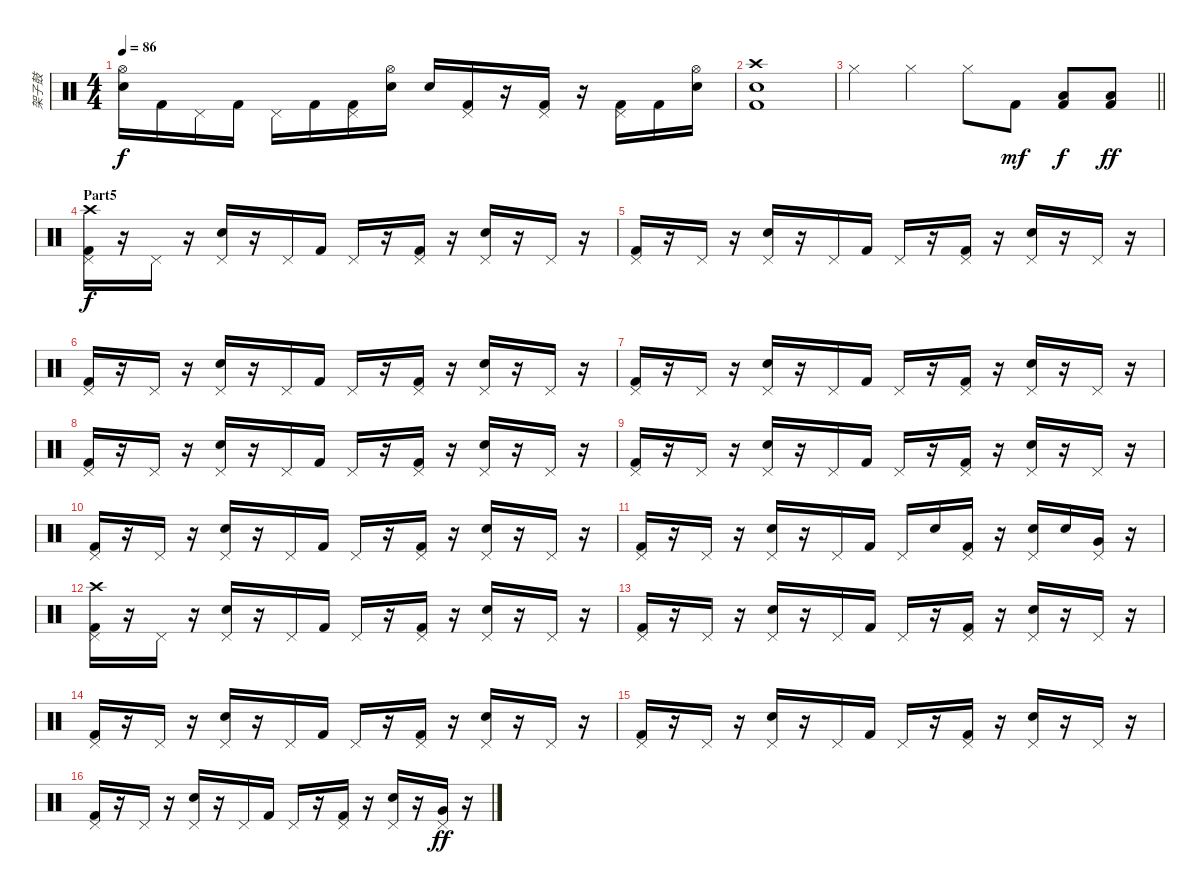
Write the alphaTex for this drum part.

\track ("架子鼓" "架子鼓") {instrument percussion}
\staff {score}
\articulation defaults
\ts (4 4)
\tempo 86
\clef neutral
\ks c
("Hi-Hat (open)" "Snare (hit) 2").16{dy f} "Kick (hit) 2".16 "Pedal Hi-Hat (hit)".16 "Kick (hit) 2".16 "Pedal Hi-Hat (hit)".16 "Kick (hit) 2".16 ("Pedal Hi-Hat (hit)" "Kick (hit) 2").16 ("Hi-Hat (open)" "Snare (hit) 2").16 "Snare (hit) 2".16 ("Pedal Hi-Hat (hit)" "Kick (hit) 2").16 r.16 ("Pedal Hi-Hat (hit)" "Kick (hit) 2").16 r.16 ("Pedal Hi-Hat (hit)" "Kick (hit) 2").16 "Kick (hit) 2".16 ("Hi-Hat (open)" "Snare (hit) 2").16 |
("Crash high (hit)" "Snare (hit) 2" "Kick (hit) 2").1 |
\barLineRight lightlight "Hi-Hat (closed)".4 "Hi-Hat (closed)".4 "Hi-Hat (closed)".8 "Kick (hit) 2".8{dy mf}
("Low Floor Tom (hit)" "Kick (hit) 2").8{dy f} ("Low Floor Tom (hit)" "Kick (hit) 2").8{dy ff} |
\section ("" "Part5")
("Crash high (hit)" "Pedal Hi-Hat (hit)" "Kick (hit) 2").16{dy f} r.16 "Pedal Hi-Hat (hit)".16 r.16 ("Pedal Hi-Hat (hit)" "Snare (hit) 2").16 r.16 "Pedal Hi-Hat (hit)".16 "Kick (hit) 2".16 "Pedal Hi-Hat (hit)".16 r.16 ("Pedal Hi-Hat (hit)" "Kick (hit) 2").16 r.16 ("Pedal Hi-Hat (hit)" "Snare (hit) 2").16 r.16 "Pedal Hi-Hat (hit)".16 r.16 |
("Pedal Hi-Hat (hit)" "Kick (hit) 2").16 r.16 "Pedal Hi-Hat (hit)".16 r.16 ("Pedal Hi-Hat (hit)" "Snare (hit) 2").16 r.16 "Pedal Hi-Hat (hit)".16 "Kick (hit) 2".16 "Pedal Hi-Hat (hit)".16 r.16 ("Pedal Hi-Hat (hit)" "Kick (hit) 2").16 r.16 ("Pedal Hi-Hat (hit)" "Snare (hit) 2").16 r.16 "Pedal Hi-Hat (hit)".16 r.16 |
("Pedal Hi-Hat (hit)" "Kick (hit) 2").16 r.16 "Pedal Hi-Hat (hit)".16 r.16 ("Pedal Hi-Hat (hit)" "Snare (hit) 2").16 r.16 "Pedal Hi-Hat (hit)".16 "Kick (hit) 2".16 "Pedal Hi-Hat (hit)".16 r.16 ("Pedal Hi-Hat (hit)" "Kick (hit) 2").16 r.16 ("Pedal Hi-Hat (hit)" "Snare (hit) 2").16 r.16 "Pedal Hi-Hat (hit)".16 r.16 |
("Pedal Hi-Hat (hit)" "Kick (hit) 2").16 r.16 "Pedal Hi-Hat (hit)".16 r.16 ("Pedal Hi-Hat (hit)" "Snare (hit) 2").16 r.16 "Pedal Hi-Hat (hit)".16 "Kick (hit) 2".16 "Pedal Hi-Hat (hit)".16 r.16 ("Pedal Hi-Hat (hit)" "Kick (hit) 2").16 r.16 ("Pedal Hi-Hat (hit)" "Snare (hit) 2").16 r.16 "Pedal Hi-Hat (hit)".16 r.16 |
("Pedal Hi-Hat (hit)" "Kick (hit) 2").16 r.16 "Pedal Hi-Hat (hit)".16 r.16 ("Pedal Hi-Hat (hit)" "Snare (hit) 2").16 r.16 "Pedal Hi-Hat (hit)".16 "Kick (hit) 2".16 "Pedal Hi-Hat (hit)".16 r.16 ("Pedal Hi-Hat (hit)" "Kick (hit) 2").16 r.16 ("Pedal Hi-Hat (hit)" "Snare (hit) 2").16 r.16 "Pedal Hi-Hat (hit)".16 r.16 |
("Pedal Hi-Hat (hit)" "Kick (hit) 2").16 r.16 "Pedal Hi-Hat (hit)".16 r.16 ("Pedal Hi-Hat (hit)" "Snare (hit) 2").16 r.16 "Pedal Hi-Hat (hit)".16 "Kick (hit) 2".16 "Pedal Hi-Hat (hit)".16 r.16 ("Pedal Hi-Hat (hit)" "Kick (hit) 2").16 r.16 ("Pedal Hi-Hat (hit)" "Snare (hit) 2").16 r.16 "Pedal Hi-Hat (hit)".16 r.16 |
("Pedal Hi-Hat (hit)" "Kick (hit) 2").16 r.16 "Pedal Hi-Hat (hit)".16 r.16 ("Pedal Hi-Hat (hit)" "Snare (hit) 2").16 r.16 "Pedal Hi-Hat (hit)".16 "Kick (hit) 2".16 "Pedal Hi-Hat (hit)".16 r.16 ("Pedal Hi-Hat (hit)" "Kick (hit) 2").16 r.16 ("Pedal Hi-Hat (hit)" "Snare (hit) 2").16 r.16 "Pedal Hi-Hat (hit)".16 r.16 |
("Pedal Hi-Hat (hit)" "Kick (hit) 2").16 r.16 "Pedal Hi-Hat (hit)".16 r.16 ("Pedal Hi-Hat (hit)" "Snare (hit) 2").16 r.16 "Pedal Hi-Hat (hit)".16 "Kick (hit) 2".16 "Pedal Hi-Hat (hit)".16 "Snare (hit) 2".16 ("Pedal Hi-Hat (hit)" "Kick (hit) 2").16 r.16 ("Pedal Hi-Hat (hit)" "Snare (hit) 2").16 "Snare (hit) 2".16 ("Pedal Hi-Hat (hit)" "Very Low Tom (hit)").16 r.16 |
("Crash high (hit)" "Pedal Hi-Hat (hit)" "Kick (hit) 2").16 r.16 "Pedal Hi-Hat (hit)".16 r.16 ("Pedal Hi-Hat (hit)" "Snare (hit) 2").16 r.16 "Pedal Hi-Hat (hit)".16 "Kick (hit) 2".16 "Pedal Hi-Hat (hit)".16 r.16 ("Pedal Hi-Hat (hit)" "Kick (hit) 2").16 r.16 ("Pedal Hi-Hat (hit)" "Snare (hit) 2").16 r.16 "Pedal Hi-Hat (hit)".16 r.16 |
("Pedal Hi-Hat (hit)" "Kick (hit) 2").16 r.16 "Pedal Hi-Hat (hit)".16 r.16 ("Pedal Hi-Hat (hit)" "Snare (hit) 2").16 r.16 "Pedal Hi-Hat (hit)".16 "Kick (hit) 2".16 "Pedal Hi-Hat (hit)".16 r.16 ("Pedal Hi-Hat (hit)" "Kick (hit) 2").16 r.16 ("Pedal Hi-Hat (hit)" "Snare (hit) 2").16 r.16 "Pedal Hi-Hat (hit)".16 r.16 |
("Pedal Hi-Hat (hit)" "Kick (hit) 2").16 r.16 "Pedal Hi-Hat (hit)".16 r.16 ("Pedal Hi-Hat (hit)" "Snare (hit) 2").16 r.16 "Pedal Hi-Hat (hit)".16 "Kick (hit) 2".16 "Pedal Hi-Hat (hit)".16 r.16 ("Pedal Hi-Hat (hit)" "Kick (hit) 2").16 r.16 ("Pedal Hi-Hat (hit)" "Snare (hit) 2").16 r.16 "Pedal Hi-Hat (hit)".16 r.16 |
("Pedal Hi-Hat (hit)" "Kick (hit) 2").16 r.16 "Pedal Hi-Hat (hit)".16 r.16 ("Pedal Hi-Hat (hit)" "Snare (hit) 2").16 r.16 "Pedal Hi-Hat (hit)".16 "Kick (hit) 2".16 "Pedal Hi-Hat (hit)".16 r.16 ("Pedal Hi-Hat (hit)" "Kick (hit) 2").16 r.16 ("Pedal Hi-Hat (hit)" "Snare (hit) 2").16 r.16 "Pedal Hi-Hat (hit)".16 r.16 |
("Pedal Hi-Hat (hit)" "Kick (hit) 2").16 r.16 "Pedal Hi-Hat (hit)".16 r.16 ("Pedal Hi-Hat (hit)" "Snare (hit) 2").16 r.16 "Pedal Hi-Hat (hit)".16 "Kick (hit) 2".16 "Pedal Hi-Hat (hit)".16 r.16 ("Pedal Hi-Hat (hit)" "Kick (hit) 2").16 r.16 ("Pedal Hi-Hat (hit)" "Snare (hit) 2").16 r.16 ("Pedal Hi-Hat (hit)" "Very Low Tom (hit)").16{dy ff} r.16
